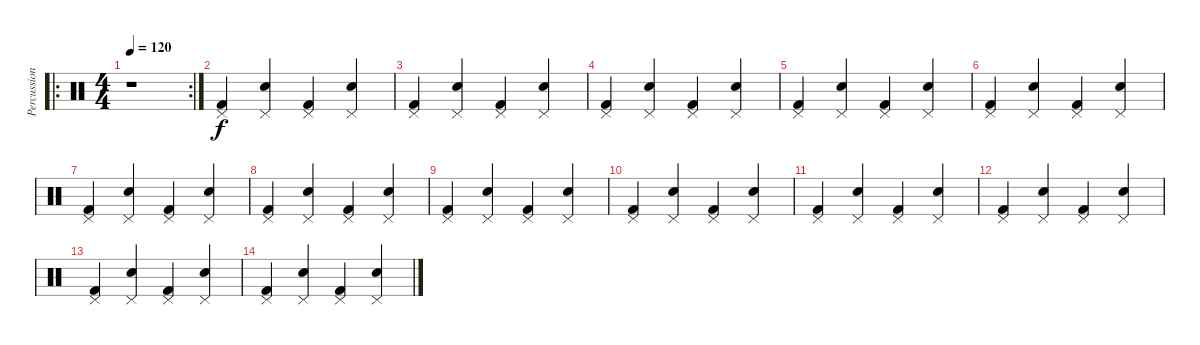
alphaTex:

\track ("Percussion" "Percussion") {instrument percussion}
\staff {score}
\articulation defaults
\ro
\rc 2
\ts (4 4)
\tempo 120
\clef neutral
\ks c
r.1{dy f} |
("Pedal Hi-Hat (hit)" "Kick (hit) 2").4 ("Pedal Hi-Hat (hit)" "Electric Snare (hit)").4 ("Pedal Hi-Hat (hit)" "Kick (hit) 2").4 ("Pedal Hi-Hat (hit)" "Electric Snare (hit)").4 |
("Pedal Hi-Hat (hit)" "Kick (hit) 2").4 ("Pedal Hi-Hat (hit)" "Electric Snare (hit)").4 ("Pedal Hi-Hat (hit)" "Kick (hit) 2").4 ("Pedal Hi-Hat (hit)" "Electric Snare (hit)").4 |
("Pedal Hi-Hat (hit)" "Kick (hit) 2").4 ("Pedal Hi-Hat (hit)" "Electric Snare (hit)").4 ("Pedal Hi-Hat (hit)" "Kick (hit) 2").4 ("Pedal Hi-Hat (hit)" "Electric Snare (hit)").4 |
("Pedal Hi-Hat (hit)" "Kick (hit) 2").4 ("Pedal Hi-Hat (hit)" "Electric Snare (hit)").4 ("Pedal Hi-Hat (hit)" "Kick (hit) 2").4 ("Pedal Hi-Hat (hit)" "Electric Snare (hit)").4 |
("Pedal Hi-Hat (hit)" "Kick (hit) 2").4 ("Pedal Hi-Hat (hit)" "Electric Snare (hit)").4 ("Pedal Hi-Hat (hit)" "Kick (hit) 2").4 ("Pedal Hi-Hat (hit)" "Electric Snare (hit)").4 |
("Pedal Hi-Hat (hit)" "Kick (hit) 2").4 ("Pedal Hi-Hat (hit)" "Electric Snare (hit)").4 ("Pedal Hi-Hat (hit)" "Kick (hit) 2").4 ("Pedal Hi-Hat (hit)" "Electric Snare (hit)").4 |
("Pedal Hi-Hat (hit)" "Kick (hit) 2").4 ("Pedal Hi-Hat (hit)" "Electric Snare (hit)").4 ("Pedal Hi-Hat (hit)" "Kick (hit) 2").4 ("Pedal Hi-Hat (hit)" "Electric Snare (hit)").4 |
("Pedal Hi-Hat (hit)" "Kick (hit) 2").4 ("Pedal Hi-Hat (hit)" "Electric Snare (hit)").4 ("Pedal Hi-Hat (hit)" "Kick (hit) 2").4 ("Pedal Hi-Hat (hit)" "Electric Snare (hit)").4 |
("Pedal Hi-Hat (hit)" "Kick (hit) 2").4 ("Pedal Hi-Hat (hit)" "Electric Snare (hit)").4 ("Pedal Hi-Hat (hit)" "Kick (hit) 2").4 ("Pedal Hi-Hat (hit)" "Electric Snare (hit)").4 |
("Pedal Hi-Hat (hit)" "Kick (hit) 2").4 ("Pedal Hi-Hat (hit)" "Electric Snare (hit)").4 ("Pedal Hi-Hat (hit)" "Kick (hit) 2").4 ("Pedal Hi-Hat (hit)" "Electric Snare (hit)").4 |
("Pedal Hi-Hat (hit)" "Kick (hit) 2").4 ("Pedal Hi-Hat (hit)" "Electric Snare (hit)").4 ("Pedal Hi-Hat (hit)" "Kick (hit) 2").4 ("Pedal Hi-Hat (hit)" "Electric Snare (hit)").4 |
("Pedal Hi-Hat (hit)" "Kick (hit) 2").4 ("Pedal Hi-Hat (hit)" "Electric Snare (hit)").4 ("Pedal Hi-Hat (hit)" "Kick (hit) 2").4 ("Pedal Hi-Hat (hit)" "Electric Snare (hit)").4 |
("Pedal Hi-Hat (hit)" "Kick (hit) 2").4 ("Pedal Hi-Hat (hit)" "Electric Snare (hit)").4 ("Pedal Hi-Hat (hit)" "Kick (hit) 2").4 ("Pedal Hi-Hat (hit)" "Electric Snare (hit)").4
